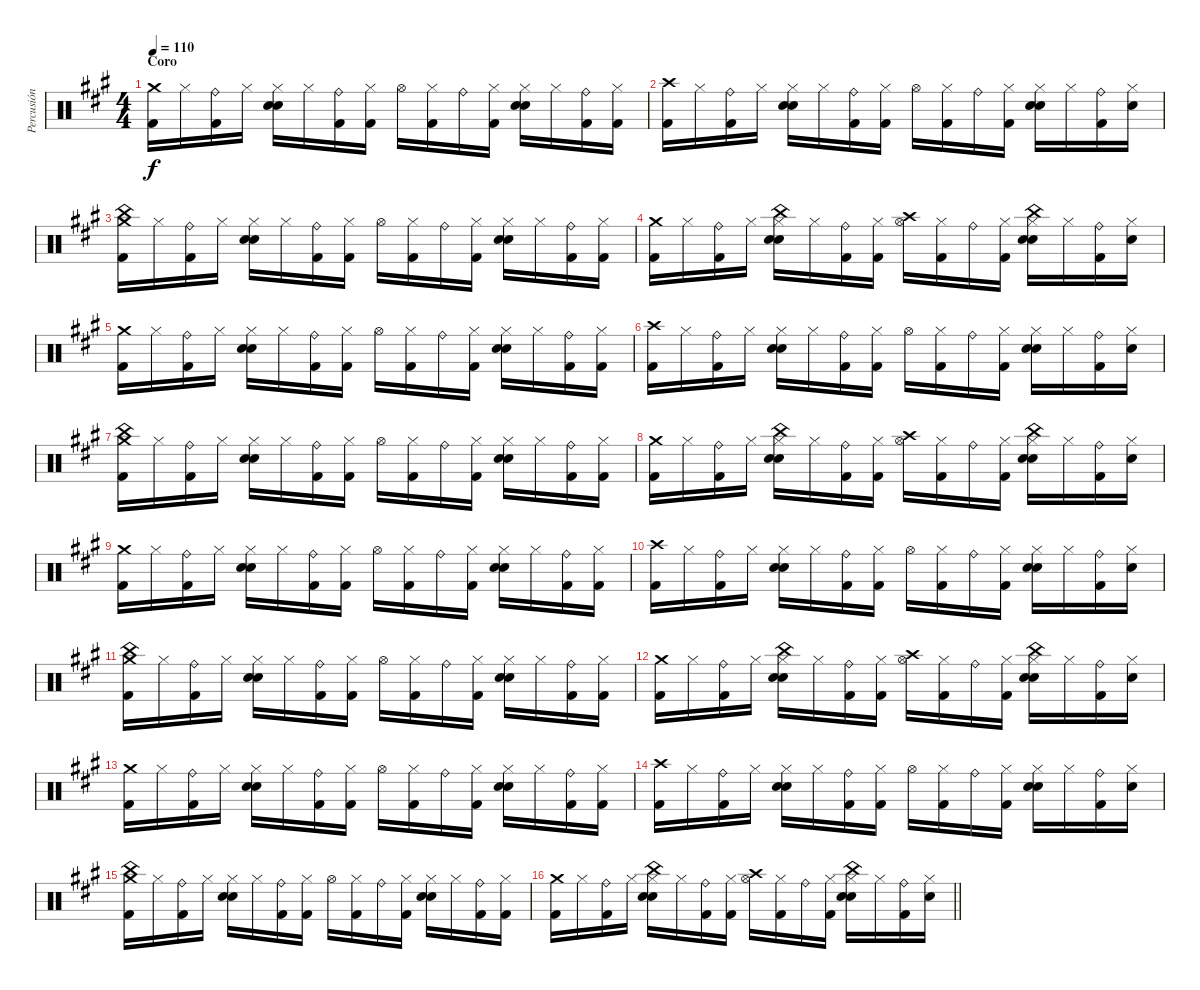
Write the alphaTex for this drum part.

\track ("Percusión" "Percusión") {instrument percussion}
\staff {score}
\articulation defaults
\ts (4 4)
\section ("" "Coro")
\tempo 110
\clef neutral
\ks a
("Crash medium (hit)" "Kick (hit) 2").16{dy f} "Hi-Hat (closed)".16 ("Ride (bell)" "Kick (hit) 2").16 "Hi-Hat (closed)".16 ("Hi-Hat (closed)" "Hand Clap (hit)" "Electric Snare (hit)").16 "Hi-Hat (closed)".16 ("Ride (bell)" "Kick (hit) 2").16 ("Hi-Hat (closed)" "Kick (hit) 2").16 "Hi-Hat (open)".16 ("Hi-Hat (closed)" "Kick (hit) 2").16 "Ride (bell)".16 ("Hi-Hat (closed)" "Kick (hit) 2").16 ("Hi-Hat (closed)" "Hand Clap (hit)" "Electric Snare (hit)").16 "Hi-Hat (closed)".16 ("Ride (bell)" "Kick (hit) 2").16 ("Hi-Hat (closed)" "Kick (hit) 2").16 |
("Crash high (hit)" "Kick (hit) 2").16 "Hi-Hat (closed)".16 ("Ride (bell)" "Kick (hit) 2").16 "Hi-Hat (closed)".16 ("Hi-Hat (closed)" "Hand Clap (hit)" "Electric Snare (hit)").16 "Hi-Hat (closed)".16 ("Ride (bell)" "Kick (hit) 2").16 ("Hi-Hat (closed)" "Kick (hit) 2").16 "Hi-Hat (open)".16 ("Hi-Hat (closed)" "Kick (hit) 2").16 "Ride (bell)".16 ("Hi-Hat (closed)" "Kick (hit) 2").16 ("Hi-Hat (closed)" "Hand Clap (hit)" "Electric Snare (hit)").16 "Hi-Hat (closed)".16 ("Ride (bell)" "Kick (hit) 2").16 ("Hi-Hat (closed)" "Hand Clap (hit)").16 |
("Crash medium (hit)" "China (hit)" "Kick (hit) 2").16 "Hi-Hat (closed)".16 ("Ride (bell)" "Kick (hit) 2").16 "Hi-Hat (closed)".16 ("Hi-Hat (closed)" "Hand Clap (hit)" "Electric Snare (hit)").16 "Hi-Hat (closed)".16 ("Ride (bell)" "Kick (hit) 2").16 ("Hi-Hat (closed)" "Kick (hit) 2").16 "Hi-Hat (open)".16 ("Hi-Hat (closed)" "Kick (hit) 2").16 "Ride (bell)".16 ("Hi-Hat (closed)" "Kick (hit) 2").16 ("Hi-Hat (closed)" "Hand Clap (hit)" "Electric Snare (hit)").16 "Hi-Hat (closed)".16 ("Ride (bell)" "Kick (hit) 2").16 ("Hi-Hat (closed)" "Kick (hit) 2").16 |
("Crash medium (hit)" "Kick (hit) 2").16 "Hi-Hat (closed)".16 ("Ride (bell)" "Kick (hit) 2").16 "Hi-Hat (closed)".16 ("China (hit)" "Hi-Hat (closed)" "Hand Clap (hit)" "Electric Snare (hit)").16 "Hi-Hat (closed)".16 ("Ride (bell)" "Kick (hit) 2").16 ("Hi-Hat (closed)" "Kick (hit) 2").16 ("Crash high (hit)" "Hi-Hat (open)").16 ("Hi-Hat (closed)" "Kick (hit) 2").16 "Ride (bell)".16 ("Hi-Hat (closed)" "Kick (hit) 2").16 ("China (hit)" "Hi-Hat (closed)" "Hand Clap (hit)" "Electric Snare (hit)").16 "Hi-Hat (closed)".16 ("Ride (bell)" "Kick (hit) 2").16 ("Hi-Hat (closed)" "Hand Clap (hit)").16 |
("Crash medium (hit)" "Kick (hit) 2").16 "Hi-Hat (closed)".16 ("Ride (bell)" "Kick (hit) 2").16 "Hi-Hat (closed)".16 ("Hi-Hat (closed)" "Hand Clap (hit)" "Electric Snare (hit)").16 "Hi-Hat (closed)".16 ("Ride (bell)" "Kick (hit) 2").16 ("Hi-Hat (closed)" "Kick (hit) 2").16 "Hi-Hat (open)".16 ("Hi-Hat (closed)" "Kick (hit) 2").16 "Ride (bell)".16 ("Hi-Hat (closed)" "Kick (hit) 2").16 ("Hi-Hat (closed)" "Hand Clap (hit)" "Electric Snare (hit)").16 "Hi-Hat (closed)".16 ("Ride (bell)" "Kick (hit) 2").16 ("Hi-Hat (closed)" "Kick (hit) 2").16 |
("Crash high (hit)" "Kick (hit) 2").16 "Hi-Hat (closed)".16 ("Ride (bell)" "Kick (hit) 2").16 "Hi-Hat (closed)".16 ("Hi-Hat (closed)" "Hand Clap (hit)" "Electric Snare (hit)").16 "Hi-Hat (closed)".16 ("Ride (bell)" "Kick (hit) 2").16 ("Hi-Hat (closed)" "Kick (hit) 2").16 "Hi-Hat (open)".16 ("Hi-Hat (closed)" "Kick (hit) 2").16 "Ride (bell)".16 ("Hi-Hat (closed)" "Kick (hit) 2").16 ("Hi-Hat (closed)" "Hand Clap (hit)" "Electric Snare (hit)").16 "Hi-Hat (closed)".16 ("Ride (bell)" "Kick (hit) 2").16 ("Hi-Hat (closed)" "Hand Clap (hit)").16 |
("Crash medium (hit)" "China (hit)" "Kick (hit) 2").16 "Hi-Hat (closed)".16 ("Ride (bell)" "Kick (hit) 2").16 "Hi-Hat (closed)".16 ("Hi-Hat (closed)" "Hand Clap (hit)" "Electric Snare (hit)").16 "Hi-Hat (closed)".16 ("Ride (bell)" "Kick (hit) 2").16 ("Hi-Hat (closed)" "Kick (hit) 2").16 "Hi-Hat (open)".16 ("Hi-Hat (closed)" "Kick (hit) 2").16 "Ride (bell)".16 ("Hi-Hat (closed)" "Kick (hit) 2").16 ("Hi-Hat (closed)" "Hand Clap (hit)" "Electric Snare (hit)").16 "Hi-Hat (closed)".16 ("Ride (bell)" "Kick (hit) 2").16 ("Hi-Hat (closed)" "Kick (hit) 2").16 |
("Crash medium (hit)" "Kick (hit) 2").16 "Hi-Hat (closed)".16 ("Ride (bell)" "Kick (hit) 2").16 "Hi-Hat (closed)".16 ("China (hit)" "Hi-Hat (closed)" "Hand Clap (hit)" "Electric Snare (hit)").16 "Hi-Hat (closed)".16 ("Ride (bell)" "Kick (hit) 2").16 ("Hi-Hat (closed)" "Kick (hit) 2").16 ("Crash high (hit)" "Hi-Hat (open)").16 ("Hi-Hat (closed)" "Kick (hit) 2").16 "Ride (bell)".16 ("Hi-Hat (closed)" "Kick (hit) 2").16 ("China (hit)" "Hi-Hat (closed)" "Hand Clap (hit)" "Electric Snare (hit)").16 "Hi-Hat (closed)".16 ("Ride (bell)" "Kick (hit) 2").16 ("Hi-Hat (closed)" "Hand Clap (hit)").16 |
("Crash medium (hit)" "Kick (hit) 2").16 "Hi-Hat (closed)".16 ("Ride (bell)" "Kick (hit) 2").16 "Hi-Hat (closed)".16 ("Hi-Hat (closed)" "Hand Clap (hit)" "Electric Snare (hit)").16 "Hi-Hat (closed)".16 ("Ride (bell)" "Kick (hit) 2").16 ("Hi-Hat (closed)" "Kick (hit) 2").16 "Hi-Hat (open)".16 ("Hi-Hat (closed)" "Kick (hit) 2").16 "Ride (bell)".16 ("Hi-Hat (closed)" "Kick (hit) 2").16 ("Hi-Hat (closed)" "Hand Clap (hit)" "Electric Snare (hit)").16 "Hi-Hat (closed)".16 ("Ride (bell)" "Kick (hit) 2").16 ("Hi-Hat (closed)" "Kick (hit) 2").16 |
("Crash high (hit)" "Kick (hit) 2").16 "Hi-Hat (closed)".16 ("Ride (bell)" "Kick (hit) 2").16 "Hi-Hat (closed)".16 ("Hi-Hat (closed)" "Hand Clap (hit)" "Electric Snare (hit)").16 "Hi-Hat (closed)".16 ("Ride (bell)" "Kick (hit) 2").16 ("Hi-Hat (closed)" "Kick (hit) 2").16 "Hi-Hat (open)".16 ("Hi-Hat (closed)" "Kick (hit) 2").16 "Ride (bell)".16 ("Hi-Hat (closed)" "Kick (hit) 2").16 ("Hi-Hat (closed)" "Hand Clap (hit)" "Electric Snare (hit)").16 "Hi-Hat (closed)".16 ("Ride (bell)" "Kick (hit) 2").16 ("Hi-Hat (closed)" "Hand Clap (hit)").16 |
("Crash medium (hit)" "China (hit)" "Kick (hit) 2").16 "Hi-Hat (closed)".16 ("Ride (bell)" "Kick (hit) 2").16 "Hi-Hat (closed)".16 ("Hi-Hat (closed)" "Hand Clap (hit)" "Electric Snare (hit)").16 "Hi-Hat (closed)".16 ("Ride (bell)" "Kick (hit) 2").16 ("Hi-Hat (closed)" "Kick (hit) 2").16 "Hi-Hat (open)".16 ("Hi-Hat (closed)" "Kick (hit) 2").16 "Ride (bell)".16 ("Hi-Hat (closed)" "Kick (hit) 2").16 ("Hi-Hat (closed)" "Hand Clap (hit)" "Electric Snare (hit)").16 "Hi-Hat (closed)".16 ("Ride (bell)" "Kick (hit) 2").16 ("Hi-Hat (closed)" "Kick (hit) 2").16 |
("Crash medium (hit)" "Kick (hit) 2").16 "Hi-Hat (closed)".16 ("Ride (bell)" "Kick (hit) 2").16 "Hi-Hat (closed)".16 ("China (hit)" "Hi-Hat (closed)" "Hand Clap (hit)" "Electric Snare (hit)").16 "Hi-Hat (closed)".16 ("Ride (bell)" "Kick (hit) 2").16 ("Hi-Hat (closed)" "Kick (hit) 2").16 ("Crash high (hit)" "Hi-Hat (open)").16 ("Hi-Hat (closed)" "Kick (hit) 2").16 "Ride (bell)".16 ("Hi-Hat (closed)" "Kick (hit) 2").16 ("China (hit)" "Hi-Hat (closed)" "Hand Clap (hit)" "Electric Snare (hit)").16 "Hi-Hat (closed)".16 ("Ride (bell)" "Kick (hit) 2").16 ("Hi-Hat (closed)" "Hand Clap (hit)").16 |
("Crash medium (hit)" "Kick (hit) 2").16 "Hi-Hat (closed)".16 ("Ride (bell)" "Kick (hit) 2").16 "Hi-Hat (closed)".16 ("Hi-Hat (closed)" "Hand Clap (hit)" "Electric Snare (hit)").16 "Hi-Hat (closed)".16 ("Ride (bell)" "Kick (hit) 2").16 ("Hi-Hat (closed)" "Kick (hit) 2").16 "Hi-Hat (open)".16 ("Hi-Hat (closed)" "Kick (hit) 2").16 "Ride (bell)".16 ("Hi-Hat (closed)" "Kick (hit) 2").16 ("Hi-Hat (closed)" "Hand Clap (hit)" "Electric Snare (hit)").16 "Hi-Hat (closed)".16 ("Ride (bell)" "Kick (hit) 2").16 ("Hi-Hat (closed)" "Kick (hit) 2").16 |
("Crash high (hit)" "Kick (hit) 2").16 "Hi-Hat (closed)".16 ("Ride (bell)" "Kick (hit) 2").16 "Hi-Hat (closed)".16 ("Hi-Hat (closed)" "Hand Clap (hit)" "Electric Snare (hit)").16 "Hi-Hat (closed)".16 ("Ride (bell)" "Kick (hit) 2").16 ("Hi-Hat (closed)" "Kick (hit) 2").16 "Hi-Hat (open)".16 ("Hi-Hat (closed)" "Kick (hit) 2").16 "Ride (bell)".16 ("Hi-Hat (closed)" "Kick (hit) 2").16 ("Hi-Hat (closed)" "Hand Clap (hit)" "Electric Snare (hit)").16 "Hi-Hat (closed)".16 ("Ride (bell)" "Kick (hit) 2").16 ("Hi-Hat (closed)" "Hand Clap (hit)").16 |
("Crash medium (hit)" "China (hit)" "Kick (hit) 2").16 "Hi-Hat (closed)".16 ("Ride (bell)" "Kick (hit) 2").16 "Hi-Hat (closed)".16 ("Hi-Hat (closed)" "Hand Clap (hit)" "Electric Snare (hit)").16 "Hi-Hat (closed)".16 ("Ride (bell)" "Kick (hit) 2").16 ("Hi-Hat (closed)" "Kick (hit) 2").16 "Hi-Hat (open)".16 ("Hi-Hat (closed)" "Kick (hit) 2").16 "Ride (bell)".16 ("Hi-Hat (closed)" "Kick (hit) 2").16 ("Hi-Hat (closed)" "Hand Clap (hit)" "Electric Snare (hit)").16 "Hi-Hat (closed)".16 ("Ride (bell)" "Kick (hit) 2").16 ("Hi-Hat (closed)" "Kick (hit) 2").16 |
\barLineRight lightlight
("Crash medium (hit)" "Kick (hit) 2").16 "Hi-Hat (closed)".16 ("Ride (bell)" "Kick (hit) 2").16 "Hi-Hat (closed)".16 ("China (hit)" "Hi-Hat (closed)" "Hand Clap (hit)" "Electric Snare (hit)").16 "Hi-Hat (closed)".16 ("Ride (bell)" "Kick (hit) 2").16 ("Hi-Hat (closed)" "Kick (hit) 2").16 ("Crash high (hit)" "Hi-Hat (open)").16 ("Hi-Hat (closed)" "Kick (hit) 2").16 "Ride (bell)".16 ("Hi-Hat (closed)" "Kick (hit) 2").16 ("China (hit)" "Hi-Hat (closed)" "Hand Clap (hit)" "Electric Snare (hit)").16 "Hi-Hat (closed)".16 ("Ride (bell)" "Kick (hit) 2").16 ("Hi-Hat (closed)" "Hand Clap (hit)").16
